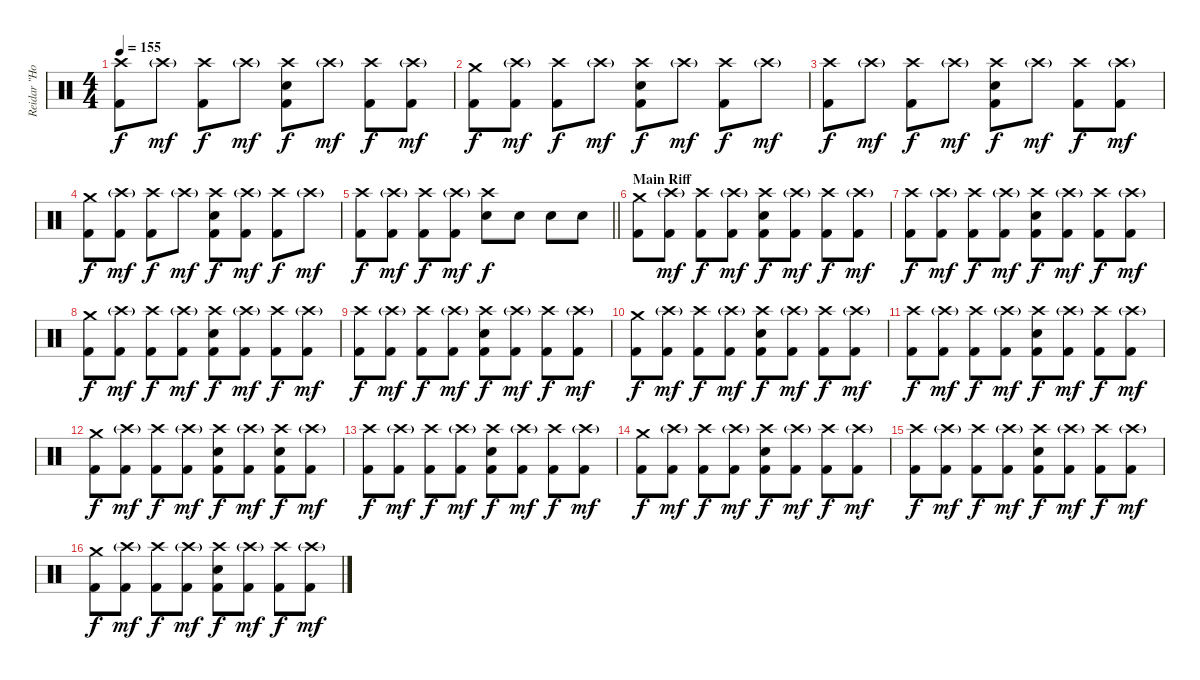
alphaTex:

\track ("Reidar \"Horgh\" Horghagen " "Reidar \"Ho") {instrument percussion}
\staff {score}
\articulation defaults
\ts (4 4)
\tempo 155
\clef neutral
\ks c
("Crash high (hit)" "Kick (hit) 2").8{dy f} "Crash high (hit)"{g}.8{dy mf} ("Crash high (hit)" "Kick (hit) 2").8{dy f} "Crash high (hit)"{g}.8{dy mf} ("Crash high (hit)" "Snare (hit) 2" "Kick (hit) 2").8{dy f} "Crash high (hit)"{g}.8{dy mf} ("Crash high (hit)" "Kick (hit) 2").8{dy f} ("Crash high (hit)"{g} "Kick (hit) 2").8{dy mf} |
("Crash medium (hit)" "Kick (hit) 2").8{dy f} ("Crash high (hit)"{g} "Kick (hit) 2").8{dy mf} ("Crash high (hit)" "Kick (hit) 2").8{dy f} "Crash high (hit)"{g}.8{dy mf} ("Crash high (hit)" "Snare (hit) 2" "Kick (hit) 2").8{dy f} "Crash high (hit)"{g}.8{dy mf} ("Crash high (hit)" "Kick (hit) 2").8{dy f} "Crash high (hit)"{g}.8{dy mf} |
("Crash high (hit)" "Kick (hit) 2").8{dy f} "Crash high (hit)"{g}.8{dy mf} ("Crash high (hit)" "Kick (hit) 2").8{dy f} "Crash high (hit)"{g}.8{dy mf} ("Crash high (hit)" "Snare (hit) 2" "Kick (hit) 2").8{dy f} "Crash high (hit)"{g}.8{dy mf} ("Crash high (hit)" "Kick (hit) 2").8{dy f} ("Crash high (hit)"{g} "Kick (hit) 2").8{dy mf} |
("Crash medium (hit)" "Kick (hit) 2").8{dy f} ("Crash high (hit)"{g} "Kick (hit) 2").8{dy mf} ("Crash high (hit)" "Kick (hit) 2").8{dy f} "Crash high (hit)"{g}.8{dy mf} ("Crash high (hit)" "Snare (hit) 2" "Kick (hit) 2").8{dy f} ("Crash high (hit)"{g} "Kick (hit) 2").8{dy mf} ("Crash high (hit)" "Kick (hit) 2").8{dy f} "Crash high (hit)"{g}.8{dy mf} |
\barLineRight lightlight
("Crash high (hit)" "Kick (hit) 2").8{dy f} ("Crash high (hit)"{g} "Kick (hit) 2").8{dy mf} ("Crash high (hit)" "Kick (hit) 2").8{dy f} ("Crash high (hit)"{g} "Kick (hit) 2").8{dy mf} ("Crash high (hit)" "Snare (hit) 2").8{dy f} "Snare (hit) 2".8 "Snare (hit) 2".8 "Snare (hit) 2".8 |
\section ("" "Main Riff")
("Crash medium (hit)" "Kick (hit) 2").8 ("Crash high (hit)"{g} "Kick (hit) 2").8{dy mf} ("Crash high (hit)" "Kick (hit) 2").8{dy f} ("Crash high (hit)"{g} "Kick (hit) 2").8{dy mf} ("Crash high (hit)" "Snare (hit) 2" "Kick (hit) 2").8{dy f} ("Crash high (hit)"{g} "Kick (hit) 2").8{dy mf} ("Crash high (hit)" "Kick (hit) 2").8{dy f} ("Crash high (hit)"{g} "Kick (hit) 2").8{dy mf} |
("Crash high (hit)" "Kick (hit) 2").8{dy f} ("Crash high (hit)"{g} "Kick (hit) 2").8{dy mf} ("Crash high (hit)" "Kick (hit) 2").8{dy f} ("Crash high (hit)"{g} "Kick (hit) 2").8{dy mf} ("Crash high (hit)" "Snare (hit) 2" "Kick (hit) 2").8{dy f} ("Crash high (hit)"{g} "Kick (hit) 2").8{dy mf} ("Crash high (hit)" "Kick (hit) 2").8{dy f} ("Crash high (hit)"{g} "Kick (hit) 2").8{dy mf} |
("Crash medium (hit)" "Kick (hit) 2").8{dy f} ("Crash high (hit)"{g} "Kick (hit) 2").8{dy mf} ("Crash high (hit)" "Kick (hit) 2").8{dy f} ("Crash high (hit)"{g} "Kick (hit) 2").8{dy mf} ("Crash high (hit)" "Snare (hit) 2" "Kick (hit) 2").8{dy f} ("Crash high (hit)"{g} "Kick (hit) 2").8{dy mf} ("Crash high (hit)" "Kick (hit) 2").8{dy f} ("Crash high (hit)"{g} "Kick (hit) 2").8{dy mf} |
("Crash high (hit)" "Kick (hit) 2").8{dy f} ("Crash high (hit)"{g} "Kick (hit) 2").8{dy mf} ("Crash high (hit)" "Kick (hit) 2").8{dy f} ("Crash high (hit)"{g} "Kick (hit) 2").8{dy mf} ("Crash high (hit)" "Snare (hit) 2" "Kick (hit) 2").8{dy f} ("Crash high (hit)"{g} "Kick (hit) 2").8{dy mf} ("Crash high (hit)" "Kick (hit) 2").8{dy f} ("Crash high (hit)"{g} "Kick (hit) 2").8{dy mf} |
("Crash medium (hit)" "Kick (hit) 2").8{dy f} ("Crash high (hit)"{g} "Kick (hit) 2").8{dy mf} ("Crash high (hit)" "Kick (hit) 2").8{dy f} ("Crash high (hit)"{g} "Kick (hit) 2").8{dy mf} ("Crash high (hit)" "Snare (hit) 2" "Kick (hit) 2").8{dy f} ("Crash high (hit)"{g} "Kick (hit) 2").8{dy mf} ("Crash high (hit)" "Kick (hit) 2").8{dy f} ("Crash high (hit)"{g} "Kick (hit) 2").8{dy mf} |
("Crash high (hit)" "Kick (hit) 2").8{dy f} ("Crash high (hit)"{g} "Kick (hit) 2").8{dy mf} ("Crash high (hit)" "Kick (hit) 2").8{dy f} ("Crash high (hit)"{g} "Kick (hit) 2").8{dy mf} ("Crash high (hit)" "Snare (hit) 2" "Kick (hit) 2").8{dy f} ("Crash high (hit)"{g} "Kick (hit) 2").8{dy mf} ("Crash high (hit)" "Kick (hit) 2").8{dy f} ("Crash high (hit)"{g} "Kick (hit) 2").8{dy mf} |
("Crash medium (hit)" "Kick (hit) 2").8{dy f} ("Crash high (hit)"{g} "Kick (hit) 2").8{dy mf} ("Crash high (hit)" "Kick (hit) 2").8{dy f} ("Crash high (hit)"{g} "Kick (hit) 2").8{dy mf} ("Crash high (hit)" "Snare (hit) 2" "Kick (hit) 2").8{dy f} ("Crash high (hit)"{g} "Kick (hit) 2").8{dy mf} ("Crash high (hit)" "Snare (hit) 2" "Kick (hit) 2").8{dy f} ("Crash high (hit)"{g} "Kick (hit) 2").8{dy mf} |
("Crash high (hit)" "Kick (hit) 2").8{dy f} ("Crash high (hit)"{g} "Kick (hit) 2").8{dy mf} ("Crash high (hit)" "Kick (hit) 2").8{dy f} ("Crash high (hit)"{g} "Kick (hit) 2").8{dy mf} ("Crash high (hit)" "Snare (hit) 2" "Kick (hit) 2").8{dy f} ("Crash high (hit)"{g} "Kick (hit) 2").8{dy mf} ("Crash high (hit)" "Kick (hit) 2").8{dy f} ("Crash high (hit)"{g} "Kick (hit) 2").8{dy mf} |
("Crash medium (hit)" "Kick (hit) 2").8{dy f} ("Crash high (hit)"{g} "Kick (hit) 2").8{dy mf} ("Crash high (hit)" "Kick (hit) 2").8{dy f} ("Crash high (hit)"{g} "Kick (hit) 2").8{dy mf} ("Crash high (hit)" "Snare (hit) 2" "Kick (hit) 2").8{dy f} ("Crash high (hit)"{g} "Kick (hit) 2").8{dy mf} ("Crash high (hit)" "Kick (hit) 2").8{dy f} ("Crash high (hit)"{g} "Kick (hit) 2").8{dy mf} |
("Crash high (hit)" "Kick (hit) 2").8{dy f} ("Crash high (hit)"{g} "Kick (hit) 2").8{dy mf} ("Crash high (hit)" "Kick (hit) 2").8{dy f} ("Crash high (hit)"{g} "Kick (hit) 2").8{dy mf} ("Crash high (hit)" "Snare (hit) 2" "Kick (hit) 2").8{dy f} ("Crash high (hit)"{g} "Kick (hit) 2").8{dy mf} ("Crash high (hit)" "Kick (hit) 2").8{dy f} ("Crash high (hit)"{g} "Kick (hit) 2").8{dy mf} |
("Crash medium (hit)" "Kick (hit) 2").8{dy f} ("Crash high (hit)"{g} "Kick (hit) 2").8{dy mf} ("Crash high (hit)" "Kick (hit) 2").8{dy f} ("Crash high (hit)"{g} "Kick (hit) 2").8{dy mf} ("Crash high (hit)" "Snare (hit) 2" "Kick (hit) 2").8{dy f} ("Crash high (hit)"{g} "Kick (hit) 2").8{dy mf} ("Crash high (hit)" "Kick (hit) 2").8{dy f} ("Crash high (hit)"{g} "Kick (hit) 2").8{dy mf}
